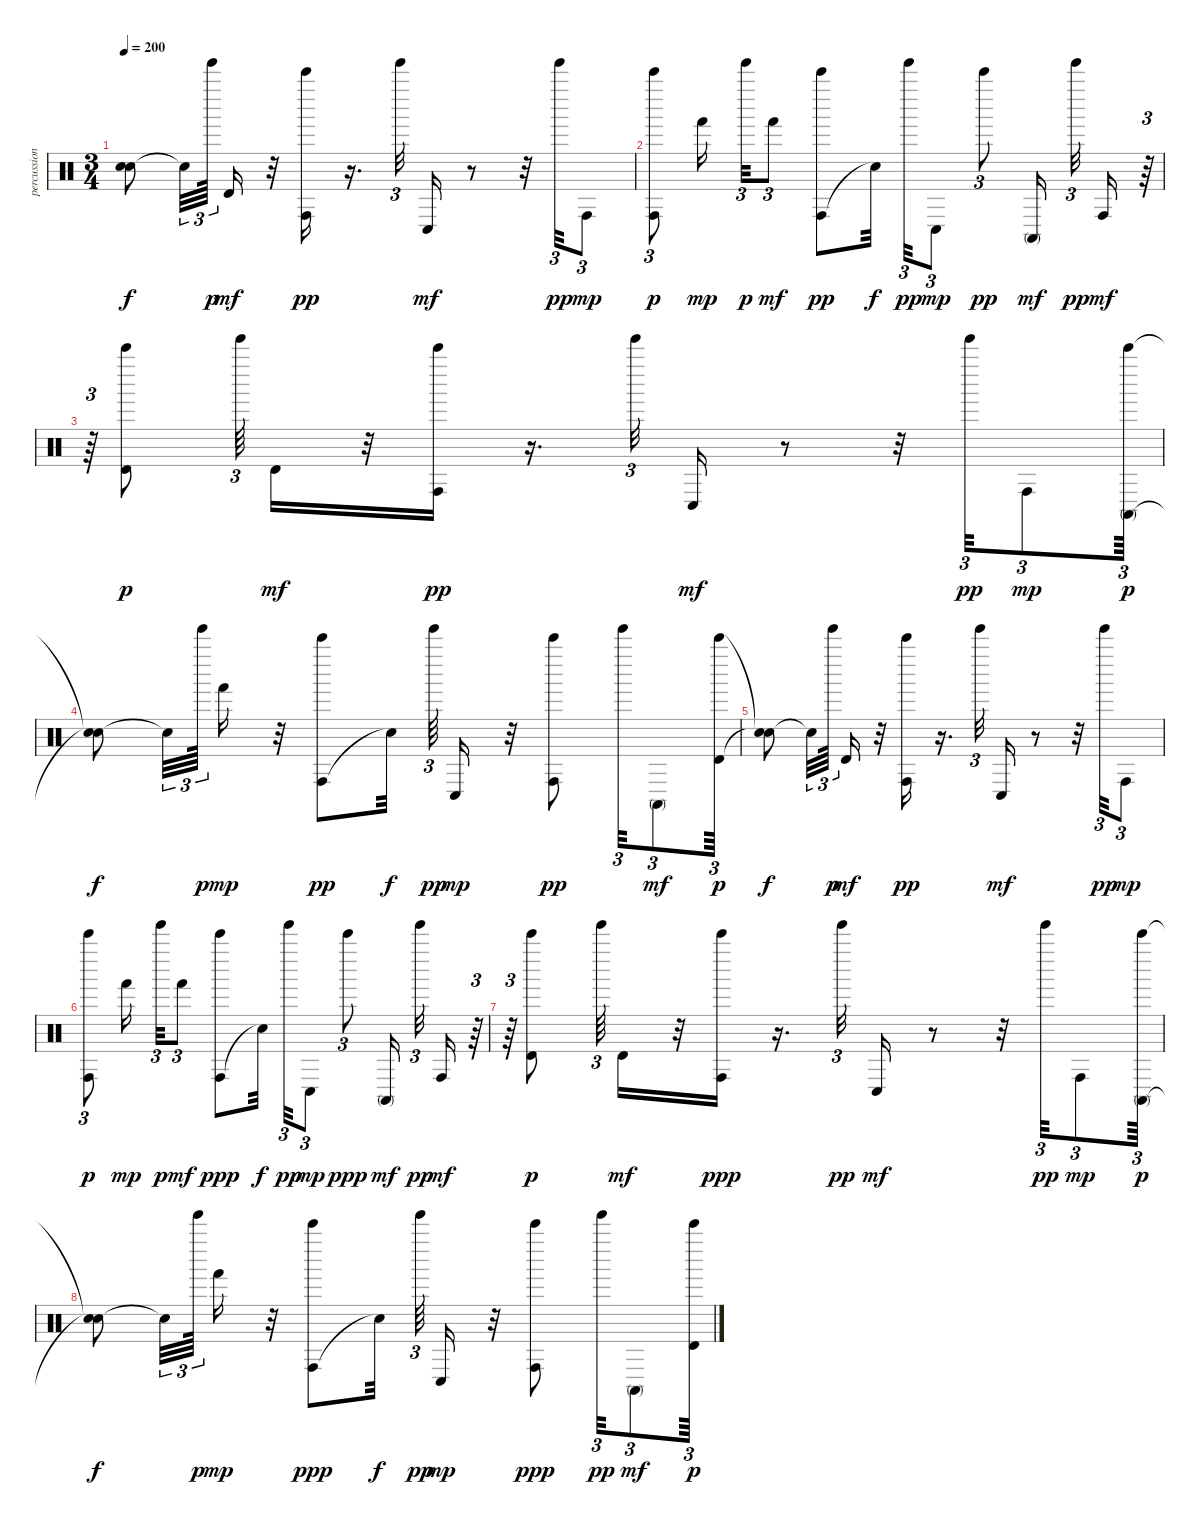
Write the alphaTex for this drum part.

\track ("percussion" "percussion") {instrument percussion}
\staff {score}
\articulation defaults
\ts (3 4)
\tempo 200
\clef neutral
\ks c
("Snare (hit)"{t} "Snare (hit)"{t}).8{dy f} "Snare (hit)"{t}.32{tu (3 2)} "Tinkle Bell (hit)".64{tu (3 2) dy p} "Timbale high (hit)".16{dy mf} r.32 ("Conga high (hit)" "Bell Tree (hit)").16{dy pp} r.16{d} "Tinkle Bell (hit)".32{tu (3 2)} "Conga low (hit)".16{dy mf} r.8 r.32 "Tinkle Bell (hit)".32{tu (3 2) dy pp} "Conga high (hit)".8{tu (3 2) dy mp} |
("Conga high (hit)" "Bell Tree (hit)").8{tu (3 2) dy p} "Hand (hit)".16{dy mp} "Tinkle Bell (hit)".32{tu (3 2) dy p} "Hand (hit)".8{tu (3 2) dy mf} ("Conga high (hit)" "Bell Tree (hit)").8{dy pp} "Snare (hit)"{t}.32{dy f} "Tinkle Bell (hit)".32{tu (3 2) dy pp} "Conga low (hit)".8{tu (3 2) dy mp} "Bell Tree (hit)".8{tu (3 2) dy pp} "Conga high (mute)".16{dy mf} "Tinkle Bell (hit)".32{tu (3 2) dy pp} "Conga high (hit)".16{dy mf} r.64{tu (3 2)} |
r.64{tu (3 2)} ("Timbale high (hit)" "Bell Tree (hit)").8{dy p} "Tinkle Bell (hit)".64{tu (3 2)} "Timbale high (hit)".16{dy mf} r.32 ("Conga high (hit)" "Bell Tree (hit)").16{dy pp} r.16{d} "Tinkle Bell (hit)".32{tu (3 2)} "Conga low (hit)".16{dy mf} r.8 r.32 "Tinkle Bell (hit)".32{tu (3 2) dy pp} "Conga high (hit)".8{tu (3 2) dy mp} ("Conga high (mute)" "Bell Tree (hit)").64{tu (3 2) dy p} |
("Snare (hit)"{t} "Snare (hit)"{t}).8{dy f} "Snare (hit)"{t}.32{tu (3 2)} "Tinkle Bell (hit)".64{tu (3 2) dy p} "Hand (hit)".16{dy mp} r.32 ("Conga high (hit)" "Bell Tree (hit)").8{dy pp} "Snare (hit)"{t}.32{dy f} "Tinkle Bell (hit)".64{tu (3 2) dy pp} "Conga low (hit)".16{dy mp} r.32 ("Conga high (hit)" "Bell Tree (hit)").8{dy pp} "Tinkle Bell (hit)".32{tu (3 2)} "Conga high (mute)".8{tu (3 2) dy mf} ("Timbale high (hit)" "Bell Tree (hit)").64{tu (3 2) dy p} |
("Snare (hit)"{t} "Snare (hit)"{t}).8{dy f} "Snare (hit)"{t}.32{tu (3 2)} "Tinkle Bell (hit)".64{tu (3 2) dy p} "Timbale high (hit)".16{dy mf} r.32 ("Conga high (hit)" "Bell Tree (hit)").16{dy pp} r.16{d} "Tinkle Bell (hit)".32{tu (3 2)} "Conga low (hit)".16{dy mf} r.8 r.32 "Tinkle Bell (hit)".32{tu (3 2) dy pp} "Conga high (hit)".8{tu (3 2) dy mp} |
("Conga high (hit)" "Bell Tree (hit)").8{tu (3 2) dy p} "Hand (hit)".16{dy mp} "Tinkle Bell (hit)".32{tu (3 2) dy p} "Hand (hit)".8{tu (3 2) dy mf} ("Conga high (hit)" "Bell Tree (hit)").8{dy ppp} "Snare (hit)"{t}.32{dy f} "Tinkle Bell (hit)".32{tu (3 2) dy pp} "Conga low (hit)".8{tu (3 2) dy mp} "Bell Tree (hit)".8{tu (3 2) dy ppp} "Conga high (mute)".16{dy mf} "Tinkle Bell (hit)".32{tu (3 2) dy pp} "Conga high (hit)".16{dy mf} r.64{tu (3 2)} |
r.64{tu (3 2)} ("Timbale high (hit)" "Bell Tree (hit)").8{dy p} "Tinkle Bell (hit)".64{tu (3 2)} "Timbale high (hit)".16{dy mf} r.32 ("Conga high (hit)" "Bell Tree (hit)").16{dy ppp} r.16{d} "Tinkle Bell (hit)".32{tu (3 2) dy pp} "Conga low (hit)".16{dy mf} r.8 r.32 "Tinkle Bell (hit)".32{tu (3 2) dy pp} "Conga high (hit)".8{tu (3 2) dy mp} ("Conga high (mute)" "Bell Tree (hit)").64{tu (3 2) dy p} |
("Snare (hit)"{t} "Snare (hit)"{t}).8{dy f} "Snare (hit)"{t}.32{tu (3 2)} "Tinkle Bell (hit)".64{tu (3 2) dy p} "Hand (hit)".16{dy mp} r.32 ("Conga high (hit)" "Bell Tree (hit)").8{dy ppp} "Snare (hit)"{t}.32{dy f} "Tinkle Bell (hit)".64{tu (3 2) dy pp} "Conga low (hit)".16{dy mp} r.32 ("Conga high (hit)" "Bell Tree (hit)").8{dy ppp} "Tinkle Bell (hit)".32{tu (3 2) dy pp} "Conga high (mute)".8{tu (3 2) dy mf} ("Timbale high (hit)" "Bell Tree (hit)").64{tu (3 2) dy p}
